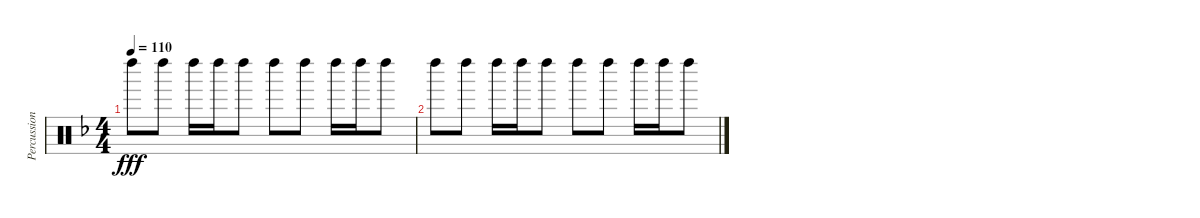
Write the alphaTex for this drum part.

\track ("Percussions" "Percussion") {instrument percussion}
\staff {score}
\articulation defaults
\ts (4 4)
\tempo 110
\clef neutral
\ks f "Left Maraca (hit)".8{dy fff} "Left Maraca (hit)".8 "Left Maraca (hit)".16 "Left Maraca (hit)".16 "Left Maraca (hit)".8 "Left Maraca (hit)".8 "Left Maraca (hit)".8 "Left Maraca (hit)".16 "Left Maraca (hit)".16 "Left Maraca (hit)".8
|
"Left Maraca (hit)".8 "Left Maraca (hit)".8 "Left Maraca (hit)".16 "Left Maraca (hit)".16 "Left Maraca (hit)".8 "Left Maraca (hit)".8 "Left Maraca (hit)".8 "Left Maraca (hit)".16 "Left Maraca (hit)".16 "Left Maraca (hit)".8
